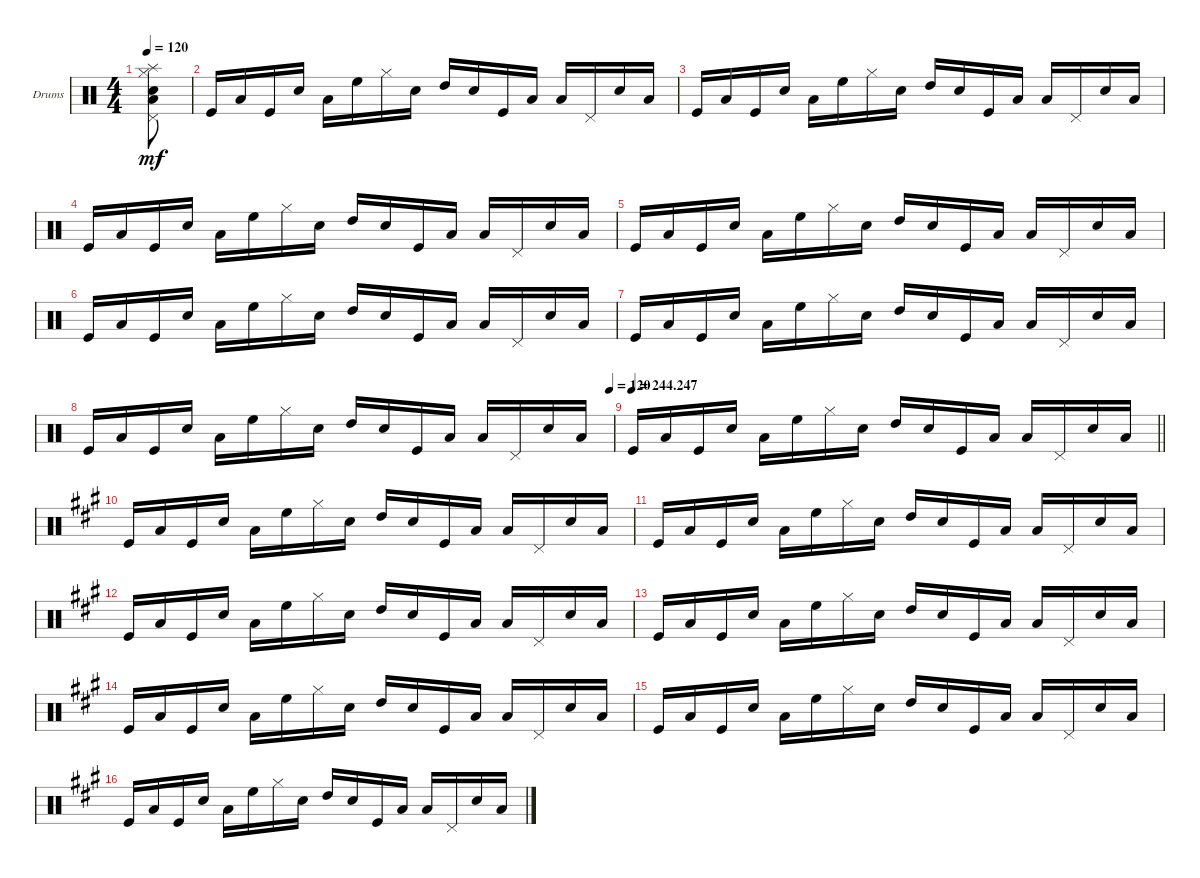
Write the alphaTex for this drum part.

\defaultSystemsLayout 4
\bracketExtendMode groupsimilarinstruments
\firstSystemTrackNameOrientation horizontal
\otherSystemsTrackNameOrientation horizontal
\track ("Drumkit" "Drums") {instrument percussion}
\staff {score}
\articulation defaults
\ts (4 4)
\ac
\tempo 120
\clef neutral
\scale
0.474178
\ks c
("Low Tom (hit)" "Snare (hit) 2" "Pedal Hi-Hat (hit)" "Hi-Hat (closed)" "Splash (hit)").8{dy mf} |
\scale
0.262911 "Kick (hit)".16 "Low Tom (hit)".16 "Kick (hit)".16 "Snare (hit) 2".16 "Low Tom (hit)".16 "High Floor Tom (hit)".16 "Hi-Hat (closed)".16 "Snare (hit) 2".16 "High Tom (hit)".16 "Snare (hit) 2".16 "Kick (hit)".16 "Low Tom (hit)".16 "Low Tom (hit)".16 "Pedal Hi-Hat (hit)".16 "Snare (hit) 2".16 "Low Tom (hit)".16 |
\scale
0.262911 "Kick (hit)".16 "Low Tom (hit)".16 "Kick (hit)".16 "Snare (hit) 2".16 "Low Tom (hit)".16 "High Floor Tom (hit)".16 "Hi-Hat (closed)".16 "Snare (hit) 2".16 "High Tom (hit)".16 "Snare (hit) 2".16 "Kick (hit)".16 "Low Tom (hit)".16 "Low Tom (hit)".16 "Pedal Hi-Hat (hit)".16 "Snare (hit) 2".16 "Low Tom (hit)".16 |
\scale
0.333333 "Kick (hit)".16 "Low Tom (hit)".16 "Kick (hit)".16 "Snare (hit) 2".16 "Low Tom (hit)".16 "High Floor Tom (hit)".16 "Hi-Hat (closed)".16 "Snare (hit) 2".16 "High Tom (hit)".16 "Snare (hit) 2".16 "Kick (hit)".16 "Low Tom (hit)".16 "Low Tom (hit)".16 "Pedal Hi-Hat (hit)".16 "Snare (hit) 2".16 "Low Tom (hit)".16 |
\scale
0.333333 "Kick (hit)".16 "Low Tom (hit)".16 "Kick (hit)".16 "Snare (hit) 2".16 "Low Tom (hit)".16 "High Floor Tom (hit)".16 "Hi-Hat (closed)".16 "Snare (hit) 2".16 "High Tom (hit)".16 "Snare (hit) 2".16 "Kick (hit)".16 "Low Tom (hit)".16 "Low Tom (hit)".16 "Pedal Hi-Hat (hit)".16 "Snare (hit) 2".16 "Low Tom (hit)".16 |
\scale
0.333333 "Kick (hit)".16 "Low Tom (hit)".16 "Kick (hit)".16 "Snare (hit) 2".16 "Low Tom (hit)".16 "High Floor Tom (hit)".16 "Hi-Hat (closed)".16 "Snare (hit) 2".16 "High Tom (hit)".16 "Snare (hit) 2".16 "Kick (hit)".16 "Low Tom (hit)".16 "Low Tom (hit)".16 "Pedal Hi-Hat (hit)".16 "Snare (hit) 2".16 "Low Tom (hit)".16 |
\scale
0.333333 "Kick (hit)".16 "Low Tom (hit)".16 "Kick (hit)".16 "Snare (hit) 2".16 "Low Tom (hit)".16 "High Floor Tom (hit)".16 "Hi-Hat (closed)".16 "Snare (hit) 2".16 "High Tom (hit)".16 "Snare (hit) 2".16 "Kick (hit)".16 "Low Tom (hit)".16 "Low Tom (hit)".16 "Pedal Hi-Hat (hit)".16 "Snare (hit) 2".16 "Low Tom (hit)".16 |
\tempo (120 0.99375)
\scale
0.333333 "Kick (hit)".16 "Low Tom (hit)".16 "Kick (hit)".16 "Snare (hit) 2".16 "Low Tom (hit)".16 "High Floor Tom (hit)".16 "Hi-Hat (closed)".16 "Snare (hit) 2".16 "High Tom (hit)".16 "Snare (hit) 2".16 "Kick (hit)".16 "Low Tom (hit)".16 "Low Tom (hit)".16 "Pedal Hi-Hat (hit)".16 "Snare (hit) 2".16 "Low Tom (hit)".16 |
\tempo
244.247
\scale
0.333333
\barLineRight lightlight "Kick (hit)".16 "Low Tom (hit)".16 "Kick (hit)".16 "Snare (hit) 2".16 "Low Tom (hit)".16 "High Floor Tom (hit)".16 "Hi-Hat (closed)".16 "Snare (hit) 2".16 "High Tom (hit)".16 "Snare (hit) 2".16 "Kick (hit)".16 "Low Tom (hit)".16 "Low Tom (hit)".16 "Pedal Hi-Hat (hit)".16 "Snare (hit) 2".16 "Low Tom (hit)".16
|
\scale
0.476636
\ks a "Kick (hit)".16 "Low Tom (hit)".16 "Kick (hit)".16 "Snare (hit) 2".16 "Low Tom (hit)".16 "High Floor Tom (hit)".16 "Hi-Hat (closed)".16 "Snare (hit) 2".16 "High Tom (hit)".16 "Snare (hit) 2".16 "Kick (hit)".16 "Low Tom (hit)".16 "Low Tom (hit)".16 "Pedal Hi-Hat (hit)".16 "Snare (hit) 2".16 "Low Tom (hit)".16
|
\scale
0.261682 "Kick (hit)".16 "Low Tom (hit)".16 "Kick (hit)".16 "Snare (hit) 2".16 "Low Tom (hit)".16 "High Floor Tom (hit)".16 "Hi-Hat (closed)".16 "Snare (hit) 2".16 "High Tom (hit)".16 "Snare (hit) 2".16 "Kick (hit)".16 "Low Tom (hit)".16 "Low Tom (hit)".16 "Pedal Hi-Hat (hit)".16 "Snare (hit) 2".16 "Low Tom (hit)".16 |
\scale
0.261682 "Kick (hit)".16 "Low Tom (hit)".16 "Kick (hit)".16 "Snare (hit) 2".16 "Low Tom (hit)".16 "High Floor Tom (hit)".16 "Hi-Hat (closed)".16 "Snare (hit) 2".16 "High Tom (hit)".16 "Snare (hit) 2".16 "Kick (hit)".16 "Low Tom (hit)".16 "Low Tom (hit)".16 "Pedal Hi-Hat (hit)".16 "Snare (hit) 2".16 "Low Tom (hit)".16 |
\scale
0.333333 "Kick (hit)".16 "Low Tom (hit)".16 "Kick (hit)".16 "Snare (hit) 2".16 "Low Tom (hit)".16 "High Floor Tom (hit)".16 "Hi-Hat (closed)".16 "Snare (hit) 2".16 "High Tom (hit)".16 "Snare (hit) 2".16 "Kick (hit)".16 "Low Tom (hit)".16 "Low Tom (hit)".16 "Pedal Hi-Hat (hit)".16 "Snare (hit) 2".16 "Low Tom (hit)".16 |
\scale
0.333333 "Kick (hit)".16 "Low Tom (hit)".16 "Kick (hit)".16 "Snare (hit) 2".16 "Low Tom (hit)".16 "High Floor Tom (hit)".16 "Hi-Hat (closed)".16 "Snare (hit) 2".16 "High Tom (hit)".16 "Snare (hit) 2".16 "Kick (hit)".16 "Low Tom (hit)".16 "Low Tom (hit)".16 "Pedal Hi-Hat (hit)".16 "Snare (hit) 2".16 "Low Tom (hit)".16 |
\scale
0.333333 "Kick (hit)".16 "Low Tom (hit)".16 "Kick (hit)".16 "Snare (hit) 2".16 "Low Tom (hit)".16 "High Floor Tom (hit)".16 "Hi-Hat (closed)".16 "Snare (hit) 2".16 "High Tom (hit)".16 "Snare (hit) 2".16 "Kick (hit)".16 "Low Tom (hit)".16 "Low Tom (hit)".16 "Pedal Hi-Hat (hit)".16 "Snare (hit) 2".16 "Low Tom (hit)".16 |
\scale
0.311111 "Kick (hit)".16 "Low Tom (hit)".16 "Kick (hit)".16 "Snare (hit) 2".16 "Low Tom (hit)".16 "High Floor Tom (hit)".16 "Hi-Hat (closed)".16 "Snare (hit) 2".16 "High Tom (hit)".16 "Snare (hit) 2".16 "Kick (hit)".16 "Low Tom (hit)".16 "Low Tom (hit)".16 "Pedal Hi-Hat (hit)".16 "Snare (hit) 2".16 "Low Tom (hit)".16
